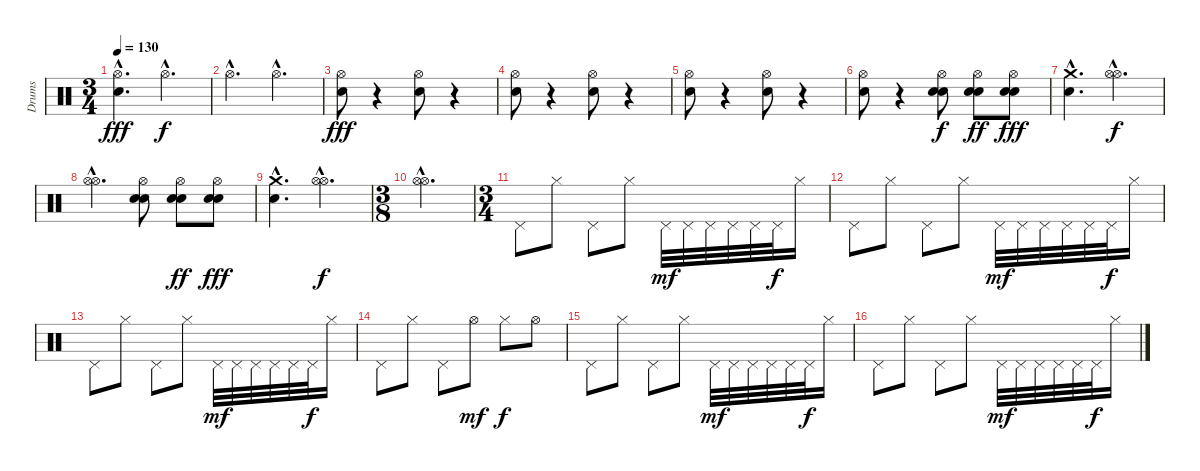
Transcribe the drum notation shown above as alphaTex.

\track ("Drums" "Drums") {instrument percussion}
\staff {score}
\articulation defaults
\ts (3 4)
\tempo 130
\clef neutral
\ks c
("Hi-Hat (open)"{hac} "Electric Snare (hit)"{hac}).4{d dy fff} "Hi-Hat (open)"{hac}.4{d dy f} |
"Hi-Hat (open)"{hac}.4{d} "Hi-Hat (open)"{hac}.4{d} |
("Electric Snare (hit)" "Hi-Hat (open)").8{dy fff} r.4 ("Electric Snare (hit)" "Hi-Hat (open)").8 r.4 |
("Electric Snare (hit)" "Hi-Hat (open)").8 r.4 ("Electric Snare (hit)" "Hi-Hat (open)").8 r.4 |
("Electric Snare (hit)" "Hi-Hat (open)").8 r.4 ("Electric Snare (hit)" "Hi-Hat (open)").8 r.4 |
("Electric Snare (hit)" "Hi-Hat (open)").8 r.4 ("Snare (hit) 2" "Electric Snare (hit)" "Hi-Hat (open)").8{dy f} ("Snare (hit) 2" "Electric Snare (hit)" "Hi-Hat (open)").8{dy ff} ("Snare (hit) 2" "Electric Snare (hit)" "Hi-Hat (open)").8{dy fff} |
("Electric Snare (hit)"{hac} "Crash medium (hit)"{hac}).4{d} ("Hi-Hat (open)"{hac} "Hi-Hat (open)"{hac}).4{d dy f} |
("Hi-Hat (open)"{hac} "Hi-Hat (open)"{hac}).4{d} ("Snare (hit) 2" "Electric Snare (hit)" "Hi-Hat (open)").8 ("Snare (hit) 2" "Electric Snare (hit)" "Hi-Hat (open)").8{dy ff} ("Snare (hit) 2" "Electric Snare (hit)" "Hi-Hat (open)").8{dy fff} |
("Electric Snare (hit)"{hac} "Crash medium (hit)"{hac}).4{d} ("Hi-Hat (open)"{hac} "Hi-Hat (open)"{hac}).4{d dy f} |
\ts (3 8)
("Hi-Hat (open)"{hac} "Hi-Hat (open)"{hac}).4{d} |
\ts (3 4)
"Pedal Hi-Hat (hit)".8 "Hi-Hat (closed)".8 "Pedal Hi-Hat (hit)".8 "Hi-Hat (closed)".8 "Pedal Hi-Hat (hit)".32{dy mf} "Pedal Hi-Hat (hit)".32 "Pedal Hi-Hat (hit)".32 "Pedal Hi-Hat (hit)".32 "Pedal Hi-Hat (hit)".32 "Pedal Hi-Hat (hit)".32{dy f} "Hi-Hat (closed)".16 |
"Pedal Hi-Hat (hit)".8 "Hi-Hat (closed)".8 "Pedal Hi-Hat (hit)".8 "Hi-Hat (closed)".8 "Pedal Hi-Hat (hit)".32{dy mf} "Pedal Hi-Hat (hit)".32 "Pedal Hi-Hat (hit)".32 "Pedal Hi-Hat (hit)".32 "Pedal Hi-Hat (hit)".32 "Pedal Hi-Hat (hit)".32{dy f} "Hi-Hat (closed)".16 |
"Pedal Hi-Hat (hit)".8 "Hi-Hat (closed)".8 "Pedal Hi-Hat (hit)".8 "Hi-Hat (closed)".8 "Pedal Hi-Hat (hit)".32{dy mf} "Pedal Hi-Hat (hit)".32 "Pedal Hi-Hat (hit)".32 "Pedal Hi-Hat (hit)".32 "Pedal Hi-Hat (hit)".32 "Pedal Hi-Hat (hit)".32{dy f} "Hi-Hat (closed)".16 |
"Pedal Hi-Hat (hit)".8 "Hi-Hat (closed)".8 "Pedal Hi-Hat (hit)".8 "Hi-Hat (open)".8{dy mf} "Hi-Hat (closed)".8{dy f} "Hi-Hat (open)".8 |
"Pedal Hi-Hat (hit)".8 "Hi-Hat (closed)".8 "Pedal Hi-Hat (hit)".8 "Hi-Hat (closed)".8 "Pedal Hi-Hat (hit)".32{dy mf} "Pedal Hi-Hat (hit)".32 "Pedal Hi-Hat (hit)".32 "Pedal Hi-Hat (hit)".32 "Pedal Hi-Hat (hit)".32 "Pedal Hi-Hat (hit)".32{dy f} "Hi-Hat (closed)".16 |
"Pedal Hi-Hat (hit)".8 "Hi-Hat (closed)".8 "Pedal Hi-Hat (hit)".8 "Hi-Hat (closed)".8 "Pedal Hi-Hat (hit)".32{dy mf} "Pedal Hi-Hat (hit)".32 "Pedal Hi-Hat (hit)".32 "Pedal Hi-Hat (hit)".32 "Pedal Hi-Hat (hit)".32 "Pedal Hi-Hat (hit)".32{dy f} "Hi-Hat (closed)".16
